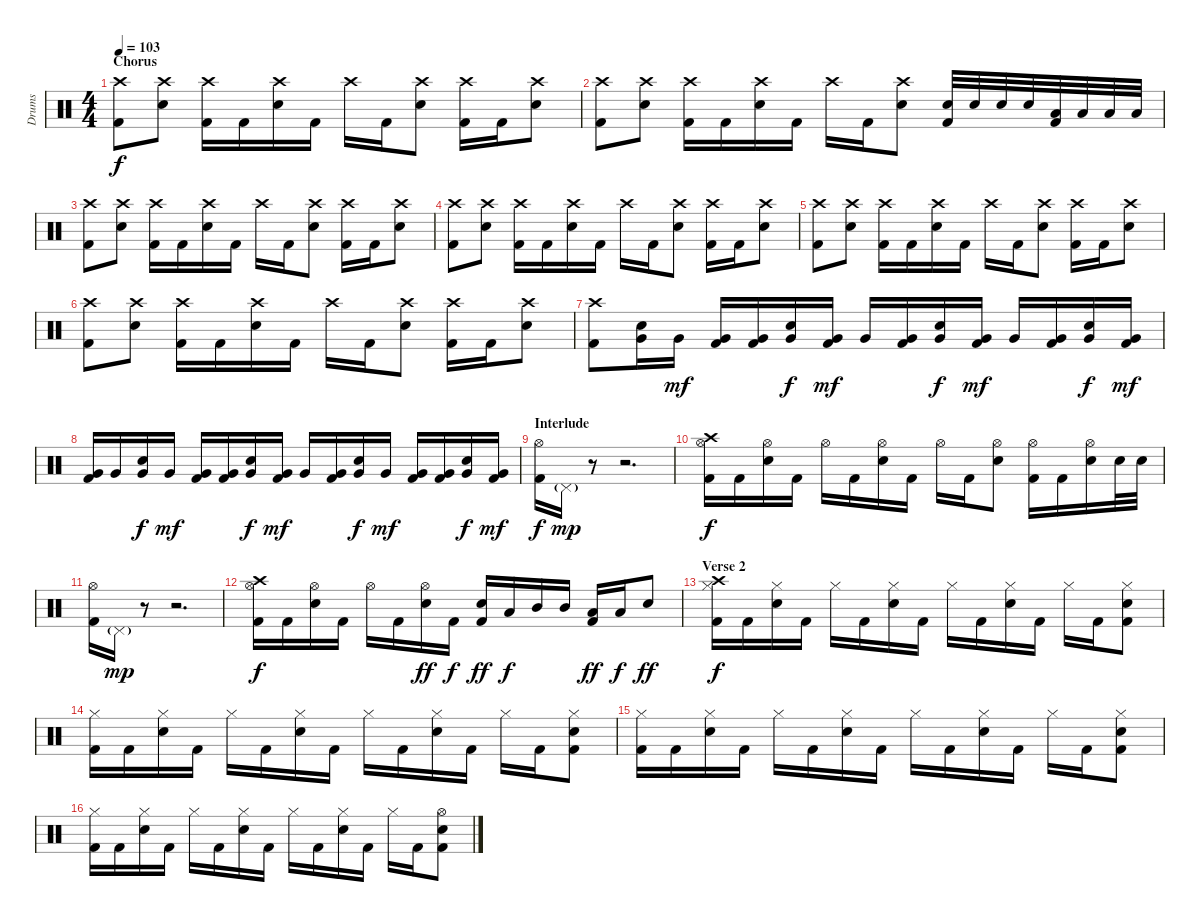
\track ("Drums" "Drums") {instrument percussion}
\staff {score}
\articulation defaults
\ts (4 4)
\section ("" "Chorus")
\tempo 103
\clef neutral
\ks c
("Crash high (hit)" "Kick (hit) 2").8{dy f} ("Crash high (hit)" "Electric Snare (hit)").8 ("Crash high (hit)" "Kick (hit) 2").16 "Kick (hit) 2".16 ("Crash high (hit)" "Electric Snare (hit)").16 "Kick (hit) 2".16 "Crash high (hit)".16 "Kick (hit) 2".16 ("Crash high (hit)" "Electric Snare (hit)").8 ("Crash high (hit)" "Kick (hit) 2").16 "Kick (hit) 2".16 ("Crash high (hit)" "Electric Snare (hit)").8 |
("Crash high (hit)" "Kick (hit) 2").8 ("Crash high (hit)" "Electric Snare (hit)").8 ("Crash high (hit)" "Kick (hit) 2").16 "Kick (hit) 2".16 ("Crash high (hit)" "Electric Snare (hit)").16 "Kick (hit) 2".16 "Crash high (hit)".16 "Kick (hit) 2".16 ("Crash high (hit)" "Electric Snare (hit)").8 ("Electric Snare (hit)" "Kick (hit) 2").32 "Electric Snare (hit)".32 "Electric Snare (hit)".32 "Electric Snare (hit)".32 ("Low Tom (hit)" "Kick (hit) 2").32 "Low Tom (hit)".32 "Low Tom (hit)".32 "Low Tom (hit)".32 |
("Crash high (hit)" "Kick (hit) 2").8 ("Crash high (hit)" "Electric Snare (hit)").8 ("Crash high (hit)" "Kick (hit) 2").16 "Kick (hit) 2".16 ("Crash high (hit)" "Electric Snare (hit)").16 "Kick (hit) 2".16 "Crash high (hit)".16 "Kick (hit) 2".16 ("Crash high (hit)" "Electric Snare (hit)").8 ("Crash high (hit)" "Kick (hit) 2").16 "Kick (hit) 2".16 ("Crash high (hit)" "Electric Snare (hit)").8 |
("Crash high (hit)" "Kick (hit) 2").8 ("Crash high (hit)" "Electric Snare (hit)").8 ("Crash high (hit)" "Kick (hit) 2").16 "Kick (hit) 2".16 ("Crash high (hit)" "Electric Snare (hit)").16 "Kick (hit) 2".16 "Crash high (hit)".16 "Kick (hit) 2".16 ("Crash high (hit)" "Electric Snare (hit)").8 ("Crash high (hit)" "Kick (hit) 2").16 "Kick (hit) 2".16 ("Crash high (hit)" "Electric Snare (hit)").8 |
("Crash high (hit)" "Kick (hit) 2").8 ("Crash high (hit)" "Electric Snare (hit)").8 ("Crash high (hit)" "Kick (hit) 2").16 "Kick (hit) 2".16 ("Crash high (hit)" "Electric Snare (hit)").16 "Kick (hit) 2".16 "Crash high (hit)".16 "Kick (hit) 2".16 ("Crash high (hit)" "Electric Snare (hit)").8 ("Crash high (hit)" "Kick (hit) 2").16 "Kick (hit) 2".16 ("Crash high (hit)" "Electric Snare (hit)").8 |
("Crash high (hit)" "Kick (hit) 2").8 ("Crash high (hit)" "Electric Snare (hit)").8 ("Crash high (hit)" "Kick (hit) 2").16 "Kick (hit) 2".16 ("Crash high (hit)" "Electric Snare (hit)").16 "Kick (hit) 2".16 "Crash high (hit)".16 "Kick (hit) 2".16 ("Crash high (hit)" "Electric Snare (hit)").8 ("Crash high (hit)" "Kick (hit) 2").16 "Kick (hit) 2".16 ("Crash high (hit)" "Electric Snare (hit)").8 |
("Crash high (hit)" "Kick (hit) 2").8 ("Very Low Tom (hit)" "Electric Snare (hit)").16 "Very Low Tom (hit)".16{dy mf} ("Very Low Tom (hit)" "Kick (hit) 2").16 ("Very Low Tom (hit)" "Kick (hit) 2").16 ("Very Low Tom (hit)" "Electric Snare (hit)").16{dy f} ("Very Low Tom (hit)" "Kick (hit) 2").16{dy mf} "Very Low Tom (hit)".16 ("Very Low Tom (hit)" "Kick (hit) 2").16 ("Very Low Tom (hit)" "Electric Snare (hit)").16{dy f} ("Very Low Tom (hit)" "Kick (hit) 2").16{dy mf} "Very Low Tom (hit)".16 ("Very Low Tom (hit)" "Kick (hit) 2").16 ("Very Low Tom (hit)" "Electric Snare (hit)").16{dy f} ("Very Low Tom (hit)" "Kick (hit) 2").16{dy mf} |
("Very Low Tom (hit)" "Kick (hit) 2").16 "Very Low Tom (hit)".16 ("Very Low Tom (hit)" "Electric Snare (hit)").16{dy f} "Very Low Tom (hit)".16{dy mf} ("Very Low Tom (hit)" "Kick (hit) 2").16 ("Very Low Tom (hit)" "Kick (hit) 2").16 ("Very Low Tom (hit)" "Electric Snare (hit)").16{dy f} ("Very Low Tom (hit)" "Kick (hit) 2").16{dy mf} "Very Low Tom (hit)".16 ("Very Low Tom (hit)" "Kick (hit) 2").16 ("Very Low Tom (hit)" "Electric Snare (hit)").16{dy f} "Very Low Tom (hit)".16{dy mf} ("Very Low Tom (hit)" "Kick (hit) 2").16 ("Very Low Tom (hit)" "Kick (hit) 2").16 ("Very Low Tom (hit)" "Electric Snare (hit)").16{dy f} ("Very Low Tom (hit)" "Kick (hit) 2").16{dy mf} |
\section ("" "Interlude")
("Hi-Hat (open)" "Kick (hit) 2").16{dy f} "Pedal Hi-Hat (hit)"{g}.16{dy mp} r.8 r.2{d} |
("Crash high (hit)" "Hi-Hat (open)" "Kick (hit) 2").16{dy f} "Kick (hit) 2".16 ("Hi-Hat (open)" "Electric Snare (hit)").16 "Kick (hit) 2".16 "Hi-Hat (open)".16 "Kick (hit) 2".16 ("Hi-Hat (open)" "Electric Snare (hit)").16 "Kick (hit) 2".16 "Hi-Hat (open)".16 "Kick (hit) 2".16 ("Hi-Hat (open)" "Electric Snare (hit)").8 ("Hi-Hat (open)" "Kick (hit) 2").16 "Kick (hit) 2".16 ("Hi-Hat (open)" "Electric Snare (hit)").16 "Electric Snare (hit)".32 "Electric Snare (hit)".32 |
("Hi-Hat (open)" "Kick (hit) 2").16 "Pedal Hi-Hat (hit)"{g}.16{dy mp} r.8 r.2{d} |
("Crash high (hit)" "Hi-Hat (open)" "Kick (hit) 2").16{dy f} "Kick (hit) 2".16 ("Hi-Hat (open)" "Electric Snare (hit)").16 "Kick (hit) 2".16 "Hi-Hat (open)".16 "Kick (hit) 2".16 ("Hi-Hat (open)" "Electric Snare (hit)").16{dy ff} "Kick (hit) 2".16{dy f} ("Electric Snare (hit)" "Kick (hit) 2").16{dy ff} "Low Tom (hit)".16{dy f} "Mid Tom (hit)".16 "Mid Tom (hit)".16 ("Low Tom (hit)" "Kick (hit) 2").16{dy ff} "Low Tom (hit)".16{dy f} "Electric Snare (hit)".8{dy ff} |
\section ("" "Verse 2")
("Crash high (hit)" "Hi-Hat (closed)" "Kick (hit) 2").16{dy f} "Kick (hit) 2".16 ("Hi-Hat (closed)" "Electric Snare (hit)").16 "Kick (hit) 2".16 "Hi-Hat (closed)".16 "Kick (hit) 2".16 ("Hi-Hat (closed)" "Electric Snare (hit)").16 "Kick (hit) 2".16 "Hi-Hat (closed)".16 "Kick (hit) 2".16 ("Hi-Hat (closed)" "Electric Snare (hit)").16 "Kick (hit) 2".16 "Hi-Hat (closed)".16 "Kick (hit) 2".16 ("Hi-Hat (closed)" "Electric Snare (hit)" "Kick (hit) 2").8 |
("Hi-Hat (closed)" "Kick (hit) 2").16 "Kick (hit) 2".16 ("Hi-Hat (closed)" "Electric Snare (hit)").16 "Kick (hit) 2".16 "Hi-Hat (closed)".16 "Kick (hit) 2".16 ("Hi-Hat (closed)" "Electric Snare (hit)").16 "Kick (hit) 2".16 "Hi-Hat (closed)".16 "Kick (hit) 2".16 ("Hi-Hat (closed)" "Electric Snare (hit)").16 "Kick (hit) 2".16 "Hi-Hat (closed)".16 "Kick (hit) 2".16 ("Hi-Hat (closed)" "Electric Snare (hit)" "Kick (hit) 2").8 |
("Hi-Hat (closed)" "Kick (hit) 2").16 "Kick (hit) 2".16 ("Hi-Hat (closed)" "Electric Snare (hit)").16 "Kick (hit) 2".16 "Hi-Hat (closed)".16 "Kick (hit) 2".16 ("Hi-Hat (closed)" "Electric Snare (hit)").16 "Kick (hit) 2".16 "Hi-Hat (closed)".16 "Kick (hit) 2".16 ("Hi-Hat (closed)" "Electric Snare (hit)").16 "Kick (hit) 2".16 "Hi-Hat (closed)".16 "Kick (hit) 2".16 ("Hi-Hat (closed)" "Electric Snare (hit)" "Kick (hit) 2").8 |
("Hi-Hat (closed)" "Kick (hit) 2").16 "Kick (hit) 2".16 ("Hi-Hat (closed)" "Electric Snare (hit)").16 "Kick (hit) 2".16 "Hi-Hat (closed)".16 "Kick (hit) 2".16 ("Hi-Hat (closed)" "Electric Snare (hit)").16 "Kick (hit) 2".16 "Hi-Hat (closed)".16 "Kick (hit) 2".16 ("Hi-Hat (closed)" "Electric Snare (hit)").16 "Kick (hit) 2".16 "Hi-Hat (closed)".16 "Kick (hit) 2".16 ("Hi-Hat (open)" "Electric Snare (hit)" "Kick (hit) 2").8
